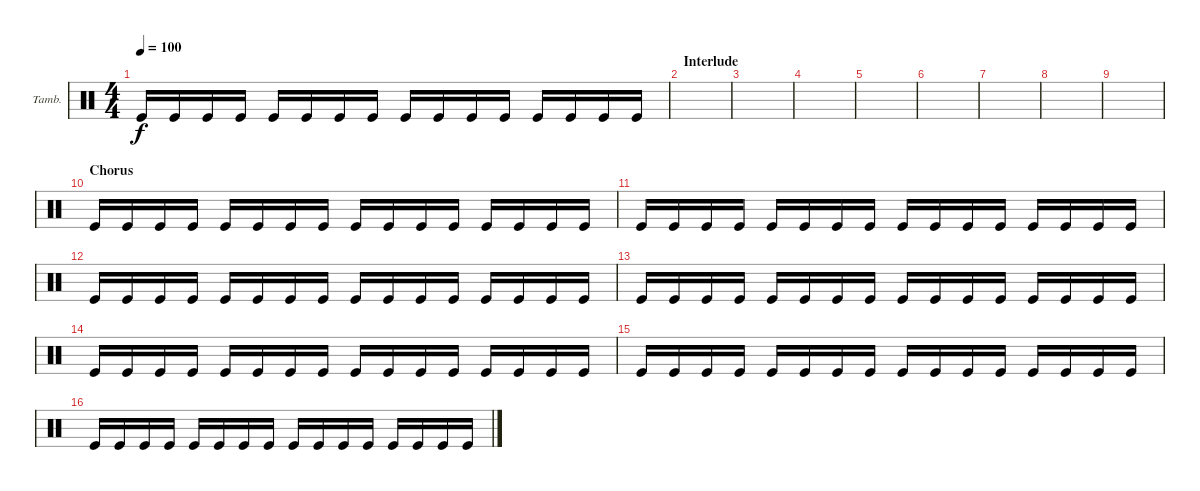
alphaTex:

\bracketExtendMode groupsimilarinstruments
\firstSystemTrackNameOrientation horizontal
\otherSystemsTrackNameOrientation horizontal
\track ("Tambourine" "Tamb.") {instrument percussion}
\staff {score}
\articulation defaults
\ts (4 4)
\tempo 100
\clef neutral
\ks c "Kick (hit)".16{dy f} "Kick (hit)".16 "Kick (hit)".16 "Kick (hit)".16 "Kick (hit)".16 "Kick (hit)".16 "Kick (hit)".16 "Kick (hit)".16 "Kick (hit)".16 "Kick (hit)".16 "Kick (hit)".16 "Kick (hit)".16 "Kick (hit)".16 "Kick (hit)".16 "Kick (hit)".16 "Kick (hit)".16
|
\section ("" "Interlude")
|
|
|
|
|
|
|
|
\section ("" "Chorus")
"Kick (hit)".16 "Kick (hit)".16 "Kick (hit)".16 "Kick (hit)".16 "Kick (hit)".16 "Kick (hit)".16 "Kick (hit)".16 "Kick (hit)".16 "Kick (hit)".16 "Kick (hit)".16 "Kick (hit)".16 "Kick (hit)".16 "Kick (hit)".16 "Kick (hit)".16 "Kick (hit)".16 "Kick (hit)".16 |
"Kick (hit)".16 "Kick (hit)".16 "Kick (hit)".16 "Kick (hit)".16 "Kick (hit)".16 "Kick (hit)".16 "Kick (hit)".16 "Kick (hit)".16 "Kick (hit)".16 "Kick (hit)".16 "Kick (hit)".16 "Kick (hit)".16 "Kick (hit)".16 "Kick (hit)".16 "Kick (hit)".16 "Kick (hit)".16 |
"Kick (hit)".16 "Kick (hit)".16 "Kick (hit)".16 "Kick (hit)".16 "Kick (hit)".16 "Kick (hit)".16 "Kick (hit)".16 "Kick (hit)".16 "Kick (hit)".16 "Kick (hit)".16 "Kick (hit)".16 "Kick (hit)".16 "Kick (hit)".16 "Kick (hit)".16 "Kick (hit)".16 "Kick (hit)".16 |
"Kick (hit)".16 "Kick (hit)".16 "Kick (hit)".16 "Kick (hit)".16 "Kick (hit)".16 "Kick (hit)".16 "Kick (hit)".16 "Kick (hit)".16 "Kick (hit)".16 "Kick (hit)".16 "Kick (hit)".16 "Kick (hit)".16 "Kick (hit)".16 "Kick (hit)".16 "Kick (hit)".16 "Kick (hit)".16 |
"Kick (hit)".16 "Kick (hit)".16 "Kick (hit)".16 "Kick (hit)".16 "Kick (hit)".16 "Kick (hit)".16 "Kick (hit)".16 "Kick (hit)".16 "Kick (hit)".16 "Kick (hit)".16 "Kick (hit)".16 "Kick (hit)".16 "Kick (hit)".16 "Kick (hit)".16 "Kick (hit)".16 "Kick (hit)".16 |
"Kick (hit)".16 "Kick (hit)".16 "Kick (hit)".16 "Kick (hit)".16 "Kick (hit)".16 "Kick (hit)".16 "Kick (hit)".16 "Kick (hit)".16 "Kick (hit)".16 "Kick (hit)".16 "Kick (hit)".16 "Kick (hit)".16 "Kick (hit)".16 "Kick (hit)".16 "Kick (hit)".16 "Kick (hit)".16 |
"Kick (hit)".16 "Kick (hit)".16 "Kick (hit)".16 "Kick (hit)".16 "Kick (hit)".16 "Kick (hit)".16 "Kick (hit)".16 "Kick (hit)".16 "Kick (hit)".16 "Kick (hit)".16 "Kick (hit)".16 "Kick (hit)".16 "Kick (hit)".16 "Kick (hit)".16 "Kick (hit)".16 "Kick (hit)".16
